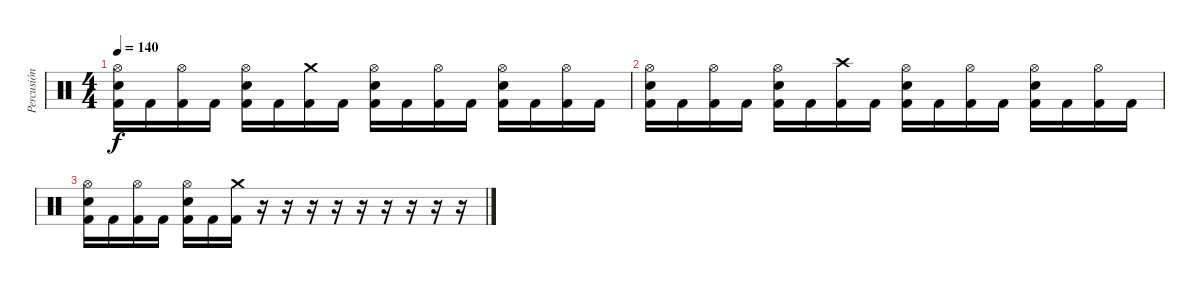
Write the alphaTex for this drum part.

\track ("Percusión" "Percusión") {instrument percussion}
\staff {score}
\articulation defaults
\ts (4 4)
\tempo 140
\clef neutral
\ks c
("Hi-Hat (open)" "Electric Snare (hit)" "Kick (hit) 2").16{dy f} "Kick (hit) 2".16 ("Hi-Hat (open)" "Kick (hit) 2").16 "Kick (hit) 2".16 ("Hi-Hat (open)" "Electric Snare (hit)" "Kick (hit) 2").16 "Kick (hit) 2".16 ("Crash medium (hit)" "Kick (hit) 2").16 "Kick (hit) 2".16 ("Hi-Hat (open)" "Electric Snare (hit)" "Kick (hit) 2").16 "Kick (hit) 2".16 ("Hi-Hat (open)" "Kick (hit) 2").16 "Kick (hit) 2".16 ("Hi-Hat (open)" "Electric Snare (hit)" "Kick (hit) 2").16 "Kick (hit) 2".16 ("Hi-Hat (open)" "Kick (hit) 2").16 "Kick (hit) 2".16 |
("Hi-Hat (open)" "Electric Snare (hit)" "Kick (hit) 2").16 "Kick (hit) 2".16 ("Hi-Hat (open)" "Kick (hit) 2").16 "Kick (hit) 2".16 ("Hi-Hat (open)" "Electric Snare (hit)" "Kick (hit) 2").16 "Kick (hit) 2".16 ("Crash high (hit)" "Kick (hit) 2").16 "Kick (hit) 2".16 ("Hi-Hat (open)" "Electric Snare (hit)" "Kick (hit) 2").16 "Kick (hit) 2".16 ("Hi-Hat (open)" "Kick (hit) 2").16 "Kick (hit) 2".16 ("Hi-Hat (open)" "Electric Snare (hit)" "Kick (hit) 2").16 "Kick (hit) 2".16 ("Hi-Hat (open)" "Kick (hit) 2").16 "Kick (hit) 2".16 |
("Hi-Hat (open)" "Electric Snare (hit)" "Kick (hit) 2").16 "Kick (hit) 2".16 ("Hi-Hat (open)" "Kick (hit) 2").16 "Kick (hit) 2".16 ("Hi-Hat (open)" "Electric Snare (hit)" "Kick (hit) 2").16 "Kick (hit) 2".16 ("Crash medium (hit)" "Kick (hit) 2").16 r.16 r.16 r.16 r.16 r.16 r.16 r.16 r.16 r.16
